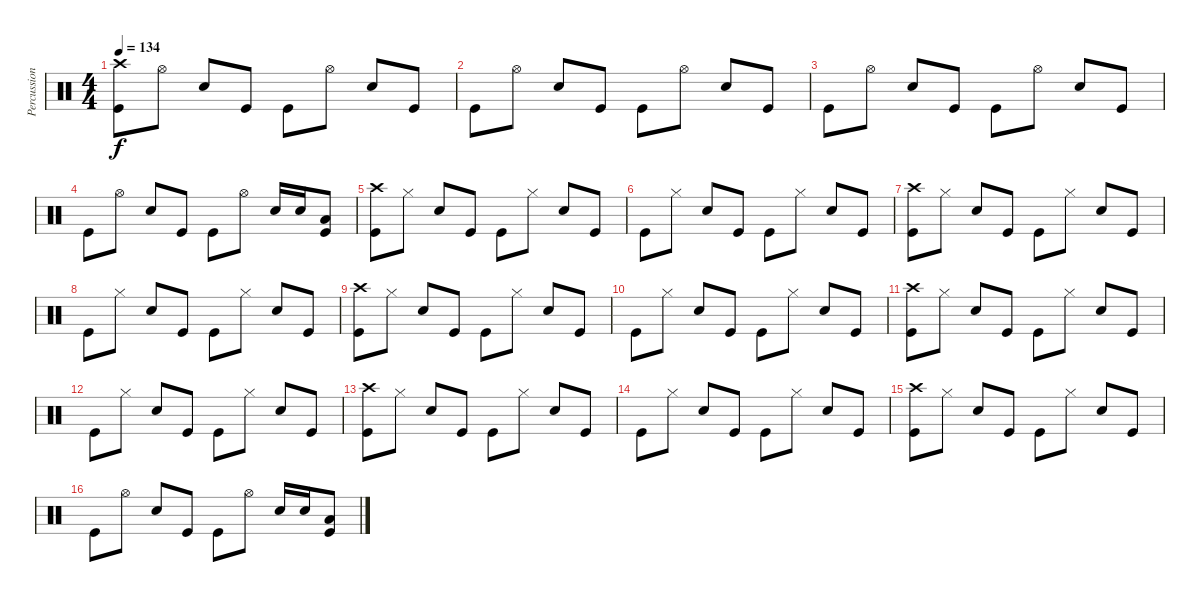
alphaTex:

\track ("Percussion" "Percussion") {instrument percussion}
\staff {score}
\articulation defaults
\ts (4 4)
\tempo 134
\clef neutral
\ks c
("Crash high (hit)" "Kick (hit)").8{dy f} "Hi-Hat (open)".8 "Electric Snare (hit)".8 "Kick (hit)".8 "Kick (hit)".8 "Hi-Hat (open)".8 "Electric Snare (hit)".8 "Kick (hit)".8 |
"Kick (hit)".8 "Hi-Hat (open)".8 "Electric Snare (hit)".8 "Kick (hit)".8 "Kick (hit)".8 "Hi-Hat (open)".8 "Electric Snare (hit)".8 "Kick (hit)".8 |
"Kick (hit)".8 "Hi-Hat (open)".8 "Electric Snare (hit)".8 "Kick (hit)".8 "Kick (hit)".8 "Hi-Hat (open)".8 "Electric Snare (hit)".8 "Kick (hit)".8 |
"Kick (hit)".8 "Hi-Hat (open)".8 "Electric Snare (hit)".8 "Kick (hit)".8 "Kick (hit)".8 "Hi-Hat (open)".8 "Electric Snare (hit)".16 "Electric Snare (hit)".16 ("Low Tom (hit)" "Kick (hit)").8 |
("Crash high (hit)" "Kick (hit)").8 "Hi-Hat (closed)".8 "Electric Snare (hit)".8 "Kick (hit)".8 "Kick (hit)".8 "Hi-Hat (closed)".8 "Electric Snare (hit)".8 "Kick (hit)".8 |
"Kick (hit)".8 "Hi-Hat (closed)".8 "Electric Snare (hit)".8 "Kick (hit)".8 "Kick (hit)".8 "Hi-Hat (closed)".8 "Electric Snare (hit)".8 "Kick (hit)".8 |
("Crash high (hit)" "Kick (hit)").8 "Hi-Hat (closed)".8 "Electric Snare (hit)".8 "Kick (hit)".8 "Kick (hit)".8 "Hi-Hat (closed)".8 "Electric Snare (hit)".8 "Kick (hit)".8 |
"Kick (hit)".8 "Hi-Hat (closed)".8 "Electric Snare (hit)".8 "Kick (hit)".8 "Kick (hit)".8 "Hi-Hat (closed)".8 "Electric Snare (hit)".8 "Kick (hit)".8 |
("Crash high (hit)" "Kick (hit)").8 "Hi-Hat (closed)".8 "Electric Snare (hit)".8 "Kick (hit)".8 "Kick (hit)".8 "Hi-Hat (closed)".8 "Electric Snare (hit)".8 "Kick (hit)".8 |
"Kick (hit)".8 "Hi-Hat (closed)".8 "Electric Snare (hit)".8 "Kick (hit)".8 "Kick (hit)".8 "Hi-Hat (closed)".8 "Electric Snare (hit)".8 "Kick (hit)".8 |
("Crash high (hit)" "Kick (hit)").8 "Hi-Hat (closed)".8 "Electric Snare (hit)".8 "Kick (hit)".8 "Kick (hit)".8 "Hi-Hat (closed)".8 "Electric Snare (hit)".8 "Kick (hit)".8 |
"Kick (hit)".8 "Hi-Hat (closed)".8 "Electric Snare (hit)".8 "Kick (hit)".8 "Kick (hit)".8 "Hi-Hat (closed)".8 "Electric Snare (hit)".8 "Kick (hit)".8 |
("Crash high (hit)" "Kick (hit)").8 "Hi-Hat (closed)".8 "Electric Snare (hit)".8 "Kick (hit)".8 "Kick (hit)".8 "Hi-Hat (closed)".8 "Electric Snare (hit)".8 "Kick (hit)".8 |
"Kick (hit)".8 "Hi-Hat (closed)".8 "Electric Snare (hit)".8 "Kick (hit)".8 "Kick (hit)".8 "Hi-Hat (closed)".8 "Electric Snare (hit)".8 "Kick (hit)".8 |
("Crash high (hit)" "Kick (hit)").8 "Hi-Hat (closed)".8 "Electric Snare (hit)".8 "Kick (hit)".8 "Kick (hit)".8 "Hi-Hat (closed)".8 "Electric Snare (hit)".8 "Kick (hit)".8 |
"Kick (hit)".8 "Hi-Hat (open)".8 "Electric Snare (hit)".8 "Kick (hit)".8 "Kick (hit)".8 "Hi-Hat (open)".8 "Electric Snare (hit)".16 "Electric Snare (hit)".16 ("Low Tom (hit)" "Kick (hit)").8
